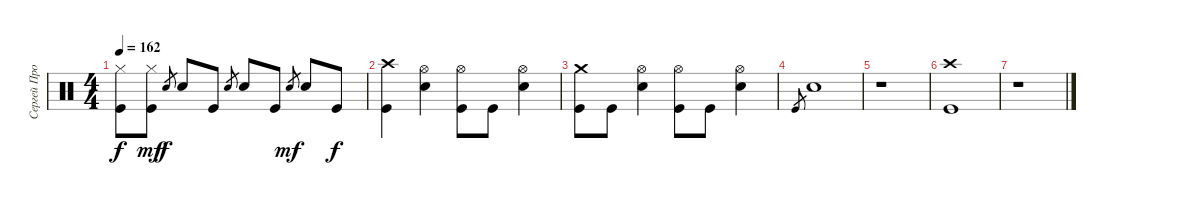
\track ("Сергей Прокофьев" "Сергей Про") {instrument percussion}
\staff {score}
\articulation defaults
\ts (4 4)
\tempo 162
\clef neutral
\ks c
("Hi-Hat (closed)" "Kick (hit)").8{dy f} ("Hi-Hat (closed)" "Kick (hit)").8{dy mf} "Electric Snare (hit)".8{gr dy f} "Electric Snare (hit)".8 "Kick (hit)".8 "Electric Snare (hit)".8{gr} "Electric Snare (hit)".8 "Kick (hit)".8 "Electric Snare (hit)".8{gr dy mf} "Electric Snare (hit)".8 "Kick (hit)".8{dy f} |
("Crash high (hit)" "Kick (hit)").4 ("Hi-Hat (open)" "Electric Snare (hit)").4 ("Hi-Hat (open)" "Kick (hit)").8 "Kick (hit)".8 ("Hi-Hat (open)" "Electric Snare (hit)").4 |
("Crash medium (hit)" "Kick (hit)").8 "Kick (hit)".8 ("Hi-Hat (open)" "Electric Snare (hit)").4 ("Hi-Hat (open)" "Kick (hit)").8 "Kick (hit)".8 ("Hi-Hat (open)" "Electric Snare (hit)").4 |
"Kick (hit)".8{gr} "Electric Snare (hit)".1 |
r.1 |
("Crash high (hit)" "Kick (hit)").1 |
r.1
